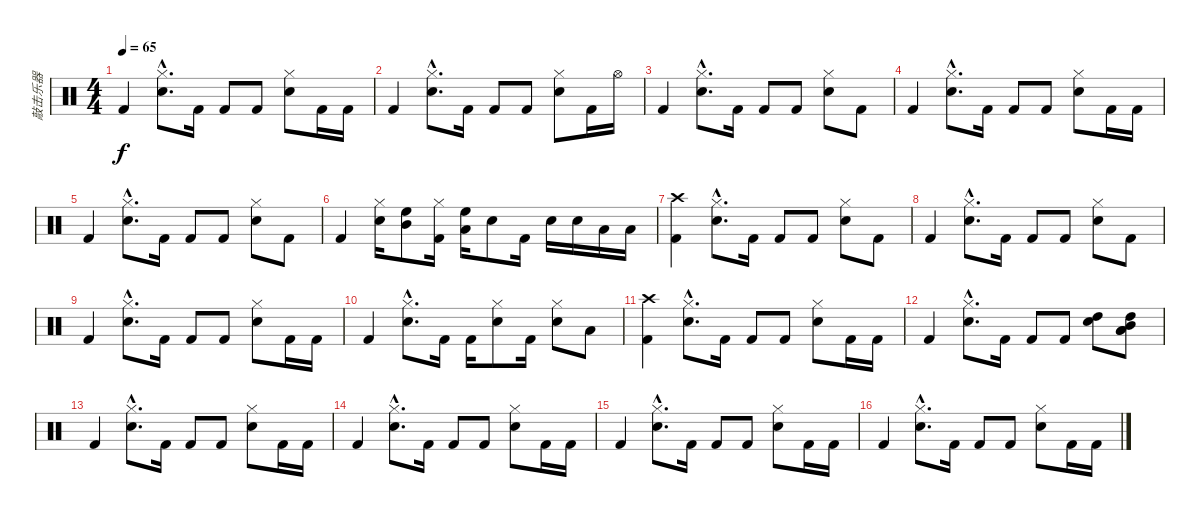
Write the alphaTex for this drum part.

\track ("敲击乐器" "敲击乐器") {instrument percussion}
\staff {score}
\articulation defaults
\ts (4 4)
\tempo 65
\clef neutral
\ks c "Kick (hit) 2".4{dy f}
("Hi-Hat (closed)"{hac} "Electric Snare (hit)"{hac}).8{d} "Kick (hit) 2".16 "Kick (hit) 2".8 "Kick (hit) 2".8 ("Hi-Hat (closed)" "Electric Snare (hit)").8 "Kick (hit) 2".16 "Kick (hit) 2".16 |
"Kick (hit) 2".4 ("Hi-Hat (closed)"{hac} "Electric Snare (hit)"{hac}).8{d} "Kick (hit) 2".16 "Kick (hit) 2".8 "Kick (hit) 2".8 ("Hi-Hat (closed)" "Electric Snare (hit)").8 "Kick (hit) 2".16 "Hi-Hat (open)".16 |
"Kick (hit) 2".4 ("Hi-Hat (closed)"{hac} "Electric Snare (hit)"{hac}).8{d} "Kick (hit) 2".16 "Kick (hit) 2".8 "Kick (hit) 2".8 ("Hi-Hat (closed)" "Electric Snare (hit)").8 "Kick (hit) 2".8 |
"Kick (hit) 2".4 ("Hi-Hat (closed)"{hac} "Electric Snare (hit)"{hac}).8{d} "Kick (hit) 2".16 "Kick (hit) 2".8 "Kick (hit) 2".8 ("Hi-Hat (closed)" "Electric Snare (hit)").8 "Kick (hit) 2".16 "Kick (hit) 2".16 |
"Kick (hit) 2".4 ("Hi-Hat (closed)"{hac} "Electric Snare (hit)"{hac}).8{d} "Kick (hit) 2".16 "Kick (hit) 2".8 "Kick (hit) 2".8 ("Hi-Hat (closed)" "Electric Snare (hit)").8 "Kick (hit) 2".8 |
"Kick (hit) 2".4 ("Hi-Hat (closed)" "Electric Snare (hit)").16 ("Mid Tom (hit)" "High Floor Tom (hit)").8 ("Hi-Hat (closed)" "Kick (hit) 2").16 ("High Floor Tom (hit)" "Low Floor Tom (hit)").16 "Snare (hit) 2".8 "Kick (hit) 2".16 "Electric Snare (hit)".16 "Snare (hit) 2".16 "Low Tom (hit)".16 "Low Floor Tom (hit)".16 |
("Crash high (hit)" "Kick (hit) 2").4 ("Hi-Hat (closed)"{hac} "Electric Snare (hit)"{hac}).8{d} "Kick (hit) 2".16 "Kick (hit) 2".8 "Kick (hit) 2".8 ("Hi-Hat (closed)" "Electric Snare (hit)").8 "Kick (hit) 2".8 |
"Kick (hit) 2".4 ("Hi-Hat (closed)"{hac} "Electric Snare (hit)"{hac}).8{d} "Kick (hit) 2".16 "Kick (hit) 2".8 "Kick (hit) 2".8 ("Hi-Hat (closed)" "Electric Snare (hit)").8 "Kick (hit) 2".8 |
"Kick (hit) 2".4 ("Hi-Hat (closed)"{hac} "Electric Snare (hit)"{hac}).8{d} "Kick (hit) 2".16 "Kick (hit) 2".8 "Kick (hit) 2".8 ("Hi-Hat (closed)" "Electric Snare (hit)").8 "Kick (hit) 2".16 "Kick (hit) 2".16 |
"Kick (hit) 2".4 ("Hi-Hat (closed)"{hac} "Electric Snare (hit)"{hac}).8{d} "Kick (hit) 2".16 "Kick (hit) 2".16 ("Snare (hit) 2" "Hi-Hat (closed)").8 "Kick (hit) 2".16 ("Hi-Hat (closed)" "Snare (hit) 2").8 "Low Tom (hit)".8 |
("Crash high (hit)" "Kick (hit) 2").4 ("Hi-Hat (closed)"{hac} "Snare (hit) 2"{hac}).8{d} "Kick (hit) 2".16 "Kick (hit) 2".8 "Kick (hit) 2".8 ("Hi-Hat (closed)" "Snare (hit) 2").8 "Kick (hit) 2".16 "Kick (hit) 2".16 |
"Kick (hit) 2".4 ("Hi-Hat (closed)"{hac} "Snare (hit) 2"{hac}).8{d} "Kick (hit) 2".16 "Kick (hit) 2".8 "Kick (hit) 2".8 ("Snare (hit) 2" "High Tom (hit)").8 ("Mid Tom (hit)" "High Tom (hit)" "Low Tom (hit)" "Low Floor Tom (hit)").8 |
"Kick (hit) 2".4 ("Hi-Hat (closed)"{hac} "Snare (hit) 2"{hac}).8{d} "Kick (hit) 2".16 "Kick (hit) 2".8 "Kick (hit) 2".8 ("Hi-Hat (closed)" "Snare (hit) 2").8 "Kick (hit) 2".16 "Kick (hit) 2".16 |
"Kick (hit) 2".4 ("Hi-Hat (closed)"{hac} "Snare (hit) 2"{hac}).8{d} "Kick (hit) 2".16 "Kick (hit) 2".8 "Kick (hit) 2".8 ("Hi-Hat (closed)" "Snare (hit) 2").8 "Kick (hit) 2".16 "Kick (hit) 2".16 |
"Kick (hit) 2".4 ("Hi-Hat (closed)"{hac} "Snare (hit) 2"{hac}).8{d} "Kick (hit) 2".16 "Kick (hit) 2".8 "Kick (hit) 2".8 ("Hi-Hat (closed)" "Snare (hit) 2").8 "Kick (hit) 2".16 "Kick (hit) 2".16 |
"Kick (hit) 2".4 ("Hi-Hat (closed)"{hac} "Snare (hit) 2"{hac}).8{d} "Kick (hit) 2".16 "Kick (hit) 2".8 "Kick (hit) 2".8 ("Hi-Hat (closed)" "Snare (hit) 2").8 "Kick (hit) 2".16 "Kick (hit) 2".16
